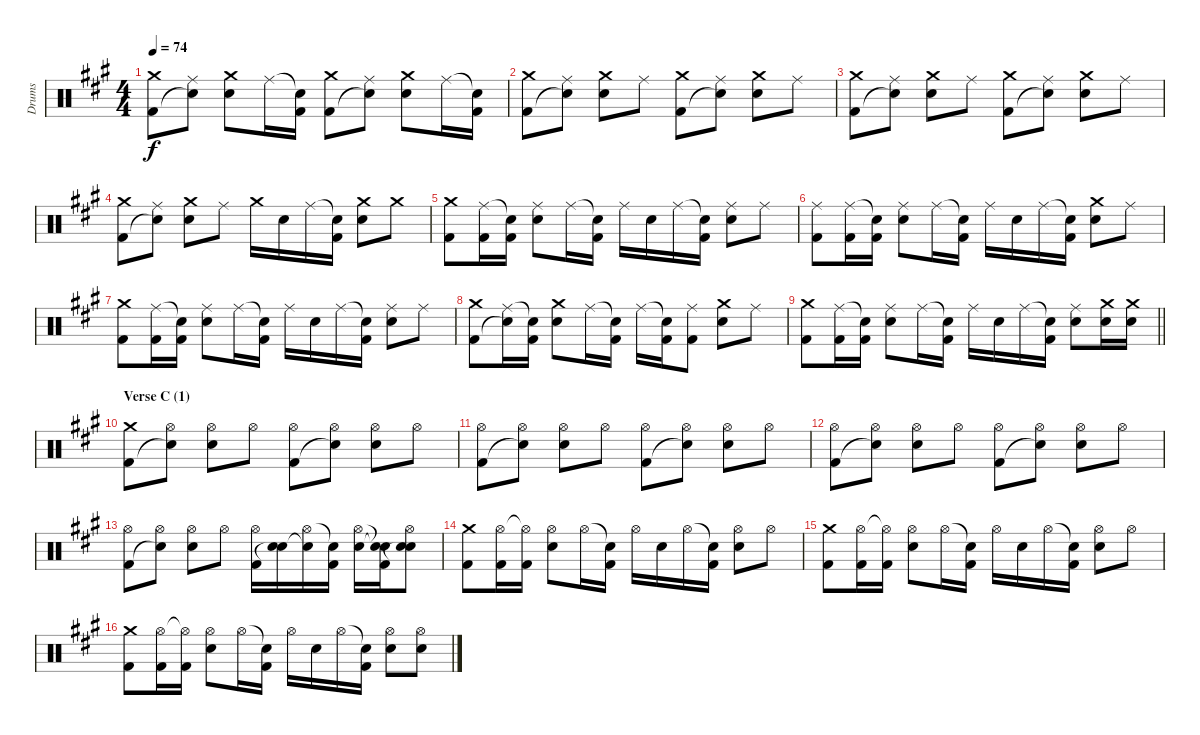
\track ("Drums" "Drums") {instrument percussion}
\staff {score}
\articulation defaults
\ts (4 4)
\tempo 74
\clef neutral
\ks a
("Crash medium (hit)" "Kick (hit) 2").8{dy f} ("Ride (middle)" "Snare (hit)"{t}).8 ("Crash medium (hit)" "Electric Snare (hit)").8 "Ride (middle)".16 ("Snare (hit)"{t} "Kick (hit) 2").16 ("Crash medium (hit)" "Kick (hit) 2").8 ("Ride (middle)" "Snare (hit)"{t}).8 ("Crash medium (hit)" "Electric Snare (hit)").8 "Ride (middle)".16 ("Snare (hit)"{t} "Kick (hit) 2").16 |
("Crash medium (hit)" "Kick (hit) 2").8 ("Ride (middle)" "Snare (hit)"{t}).8 ("Crash medium (hit)" "Electric Snare (hit)").8 "Ride (middle)".8 ("Crash medium (hit)" "Kick (hit) 2").8 ("Ride (middle)" "Snare (hit)"{t}).8 ("Crash medium (hit)" "Electric Snare (hit)").8 "Ride (middle)".8 |
("Crash medium (hit)" "Kick (hit) 2").8 ("Ride (middle)" "Snare (hit)"{t}).8 ("Crash medium (hit)" "Electric Snare (hit)").8 "Ride (middle)".8 ("Crash medium (hit)" "Kick (hit) 2").8 ("Ride (middle)" "Snare (hit)"{t}).8 ("Crash medium (hit)" "Electric Snare (hit)").8 "Ride (middle)".8 |
("Crash medium (hit)" "Kick (hit) 2").8 ("Ride (middle)" "Snare (hit)"{t}).8 ("Crash medium (hit)" "Electric Snare (hit)").8 "Ride (middle)".8 "Crash medium (hit)".16 "Electric Snare (hit)".16 "Ride (middle)".16 ("Snare (hit)"{t} "Kick (hit) 2").16 ("Crash medium (hit)" "Electric Snare (hit)").8 "Crash medium (hit)".8 |
("Crash medium (hit)" "Kick (hit) 2").8 ("Ride (middle)" "Kick (hit) 2").16 ("Snare (hit)"{t} "Kick (hit) 2").16 ("Ride (middle)" "Electric Snare (hit)").8 "Ride (middle)".16 ("Snare (hit)"{t} "Kick (hit) 2").16 "Ride (middle)".16 "Electric Snare (hit)".16 "Ride (middle)".16 ("Snare (hit)"{t} "Kick (hit) 2").16 ("Ride (middle)" "Electric Snare (hit)").8 "Ride (middle)".8 |
("Ride (middle)" "Kick (hit) 2").8 ("Ride (middle)" "Kick (hit) 2").16 ("Snare (hit)"{t} "Kick (hit) 2").16 ("Ride (middle)" "Electric Snare (hit)").8 "Ride (middle)".16 ("Snare (hit)"{t} "Kick (hit) 2").16 "Ride (middle)".16 "Electric Snare (hit)".16 "Ride (middle)".16 ("Snare (hit)"{t} "Kick (hit) 2").16 ("Crash medium (hit)" "Electric Snare (hit)").8 "Ride (middle)".8 |
("Crash medium (hit)" "Kick (hit) 2").8 ("Ride (middle)" "Kick (hit) 2").16 ("Snare (hit)"{t} "Kick (hit) 2").16 ("Ride (middle)" "Electric Snare (hit)").8 "Ride (middle)".16 ("Snare (hit)"{t} "Kick (hit) 2").16 "Ride (middle)".16 "Electric Snare (hit)".16 "Ride (middle)".16 ("Snare (hit)"{t} "Kick (hit) 2").16 ("Ride (middle)" "Electric Snare (hit)").8 "Ride (middle)".8 |
("Crash medium (hit)" "Kick (hit) 2").8 ("Ride (middle)" "Snare (hit)"{t}).16 ("Snare (hit)"{t} "Kick (hit) 2").16 ("Crash medium (hit)" "Electric Snare (hit)").8 "Ride (middle)".16 ("Snare (hit)"{t} "Kick (hit) 2").16 "Ride (middle)".16 ("Snare (hit)"{t} "Kick (hit) 2").16 ("Ride (middle)" "Kick (hit) 2").8 ("Crash medium (hit)" "Electric Snare (hit)").8 "Ride (middle)".8 |
\barLineRight lightlight
("Crash medium (hit)" "Kick (hit) 2").8 ("Ride (middle)" "Kick (hit) 2").16 ("Snare (hit)"{t} "Kick (hit) 2").16 ("Ride (middle)" "Electric Snare (hit)").8 "Ride (middle)".16 ("Snare (hit)"{t} "Kick (hit) 2").16 "Ride (middle)".16 "Electric Snare (hit)".16 "Ride (middle)".16 ("Snare (hit)"{t} "Kick (hit) 2").16 ("Ride (middle)" "Electric Snare (hit)").8 ("Crash medium (hit)" "Electric Snare (hit)").16 ("Crash medium (hit)" "Electric Snare (hit)").16 |
\section ("" "Verse C (1)")
\ks f#minor
("Crash medium (hit)" "Kick (hit) 2").8 ("Hi-Hat (open)" "Snare (hit)"{t}).8 ("Hi-Hat (open)" "Electric Snare (hit)").8 "Hi-Hat (open)".8 ("Hi-Hat (open)" "Kick (hit) 2").8 ("Hi-Hat (open)" "Snare (hit)"{t}).8 ("Hi-Hat (open)" "Electric Snare (hit)").8 "Hi-Hat (open)".8 |
("Hi-Hat (open)" "Kick (hit) 2").8 ("Hi-Hat (open)" "Snare (hit)"{t}).8 ("Hi-Hat (open)" "Electric Snare (hit)").8 "Hi-Hat (open)".8 ("Hi-Hat (open)" "Kick (hit) 2").8 ("Hi-Hat (open)" "Snare (hit)"{t}).8 ("Hi-Hat (open)" "Electric Snare (hit)").8 "Hi-Hat (open)".8 |
("Hi-Hat (open)" "Kick (hit) 2").8 ("Hi-Hat (open)" "Snare (hit)"{t}).8 ("Hi-Hat (open)" "Electric Snare (hit)").8 "Hi-Hat (open)".8 ("Hi-Hat (open)" "Kick (hit) 2").8 ("Hi-Hat (open)" "Snare (hit)"{t}).8 ("Hi-Hat (open)" "Electric Snare (hit)").8 "Hi-Hat (open)".8 |
("Hi-Hat (open)" "Kick (hit) 2").8 ("Hi-Hat (open)" "Snare (hit)"{t}).8 ("Hi-Hat (open)" "Electric Snare (hit)").8 "Hi-Hat (open)".8 ("Hi-Hat (open)" "Kick (hit) 2").16 ("Electric Snare (hit)" "Snare (hit)"{t}).16 ("Hi-Hat (open)" "Snare (hit)"{t}).16 ("Snare (hit)"{t} "Kick (hit) 2").16 ("Hi-Hat (open)" "Electric Snare (hit)").16 ("Snare (hit)"{t} "Snare (hit)"{t} "Kick (hit) 2").16 ("Hi-Hat (open)" "Electric Snare (hit)" "Snare (hit)"{t}).8 |
("Crash medium (hit)" "Kick (hit) 2").8 ("Hi-Hat (open)" "Kick (hit) 2").16 ("Hi-Hat (open)"{t} "Kick (hit) 2").16 ("Hi-Hat (open)" "Electric Snare (hit)").8 "Hi-Hat (open)".16 ("Snare (hit)"{t} "Kick (hit) 2").16 "Hi-Hat (open)".16 "Electric Snare (hit)".16 "Hi-Hat (open)".16 ("Snare (hit)"{t} "Kick (hit) 2").16 ("Hi-Hat (open)" "Electric Snare (hit)").8 "Hi-Hat (open)".8 |
("Crash medium (hit)" "Kick (hit) 2").8 ("Hi-Hat (open)" "Kick (hit) 2").16 ("Hi-Hat (open)"{t} "Kick (hit) 2").16 ("Hi-Hat (open)" "Electric Snare (hit)").8 "Hi-Hat (open)".16 ("Snare (hit)"{t} "Kick (hit) 2").16 "Hi-Hat (open)".16 "Electric Snare (hit)".16 "Hi-Hat (open)".16 ("Snare (hit)"{t} "Kick (hit) 2").16 ("Hi-Hat (open)" "Electric Snare (hit)").8 "Hi-Hat (open)".8 |
("Crash medium (hit)" "Kick (hit) 2").8 ("Hi-Hat (open)" "Kick (hit) 2").16 ("Hi-Hat (open)"{t} "Kick (hit) 2").16 ("Hi-Hat (open)" "Electric Snare (hit)").8 "Hi-Hat (open)".16 ("Snare (hit)"{t} "Kick (hit) 2").16 "Hi-Hat (open)".16 "Electric Snare (hit)".16 "Hi-Hat (open)".16 ("Snare (hit)"{t} "Kick (hit) 2").16 ("Hi-Hat (open)" "Electric Snare (hit)").8 ("Hi-Hat (open)" "Electric Snare (hit)").8
